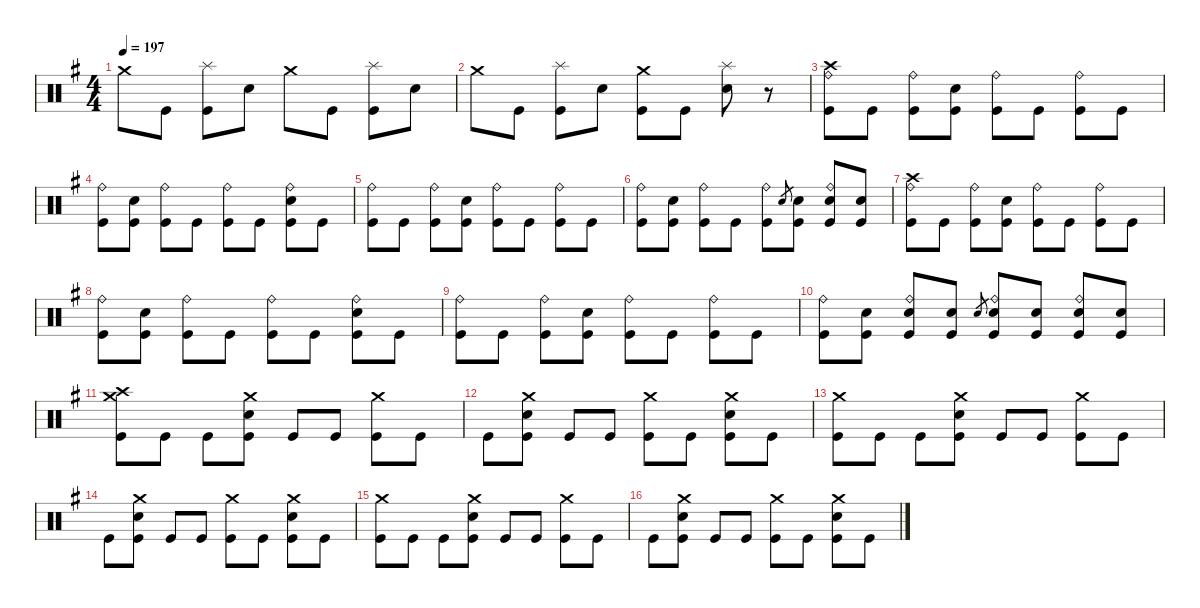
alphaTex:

\defaultSystemsLayout 4
\hideDynamics
\bracketExtendMode nobrackets
\singleTrackTrackNamePolicy hidden
\multiTrackTrackNamePolicy hidden
\firstSystemTrackNameMode fullname
\firstSystemTrackNameOrientation horizontal
\otherSystemsTrackNameOrientation horizontal
\track ("Drums" "drm.") {defaultSystemsLayout 4 instrument percussion}
\staff {score}
\articulation defaults
\ts (4 4)
\tempo 197
\clef neutral
\ks eminor "Crash medium (hit)"{acc forcenatural}.8{dy mf beam Down} "Kick (hit)"{acc forcenatural}.8{dy f beam Down}
("Splash (hit)"{acc forcenatural} "Kick (hit)"{acc forcenatural}).8{dy mf beam Down} "Snare (hit) 2"{acc forcenatural}.8{dy f beam Down} "Crash medium (hit)"{acc forcenatural}.8{dy mf beam Down} "Kick (hit)"{acc forcenatural}.8{dy f beam Down} ("Splash (hit)"{acc forcenatural} "Kick (hit)"{acc forcenatural}).8{dy mf beam Down} "Snare (hit) 2"{acc forcenatural}.8{dy f beam Down} |
"Crash medium (hit)"{acc forcenatural}.8{dy mf beam Down} "Kick (hit)"{acc forcenatural}.8{dy f beam Down} ("Splash (hit)"{acc forcenatural} "Kick (hit)"{acc forcenatural}).8{dy mf beam Down} "Snare (hit) 2"{acc forcenatural}.8{dy f beam Down} ("Crash medium (hit)"{acc forcenatural} "Kick (hit)"{acc forcenatural}).8{dy mf beam Down} "Kick (hit)"{acc forcenatural}.8{dy f beam Down} ("Splash (hit)"{acc forcenatural} "Snare (hit) 2"{acc forcenatural}).8{dy mf beam Down} r.8{beam Down} |
("Crash high (hit)"{acc forcenatural} "Ride (bell)"{acc forcenatural} "Kick (hit)"{acc forcenatural}).8{dy f beam Down} "Kick (hit)"{acc forcenatural}.8{beam Down} ("Ride (bell)"{acc forcenatural} "Kick (hit)"{acc forcenatural}).8{beam Down} ("Snare (hit) 2"{acc forcenatural} "Kick (hit)"{acc forcenatural}).8{beam Down} ("Ride (bell)"{acc forcenatural} "Kick (hit)"{acc forcenatural}).8{beam Down} "Kick (hit)"{acc forcenatural}.8{beam Down} ("Ride (bell)"{acc forcenatural} "Kick (hit)"{acc forcenatural}).8{beam Down} "Kick (hit)"{acc forcenatural}.8{beam Down} |
("Ride (bell)"{acc forcenatural} "Kick (hit)"{acc forcenatural}).8{beam Down} ("Snare (hit) 2"{acc forcenatural} "Kick (hit)"{acc forcenatural}).8{beam Down} ("Ride (bell)"{acc forcenatural} "Kick (hit)"{acc forcenatural}).8{beam Down} "Kick (hit)"{acc forcenatural}.8{beam Down} ("Ride (bell)"{acc forcenatural} "Kick (hit)"{acc forcenatural}).8{beam Down} "Kick (hit)"{acc forcenatural}.8{beam Down} ("Ride (bell)"{acc forcenatural} "Snare (hit) 2"{acc forcenatural} "Kick (hit)"{acc forcenatural}).8{beam Down} "Kick (hit)"{acc forcenatural}.8{beam Down} |
("Ride (bell)"{acc forcenatural} "Kick (hit)"{acc forcenatural}).8{beam Down} "Kick (hit)"{acc forcenatural}.8{beam Down} ("Ride (bell)"{acc forcenatural} "Kick (hit)"{acc forcenatural}).8{beam Down} ("Snare (hit) 2"{acc forcenatural} "Kick (hit)"{acc forcenatural}).8{beam Down} ("Ride (bell)"{acc forcenatural} "Kick (hit)"{acc forcenatural}).8{beam Down} "Kick (hit)"{acc forcenatural}.8{beam Down} ("Ride (bell)"{acc forcenatural} "Kick (hit)"{acc forcenatural}).8{beam Down} "Kick (hit)"{acc forcenatural}.8{beam Down} |
("Ride (bell)"{acc forcenatural} "Kick (hit)"{acc forcenatural}).8{beam Down} ("Snare (hit) 2"{acc forcenatural} "Kick (hit)"{acc forcenatural}).8{beam Down} ("Ride (bell)"{acc forcenatural} "Kick (hit)"{acc forcenatural}).8{beam Down} "Kick (hit)"{acc forcenatural}.8{beam Down} ("Ride (bell)"{acc forcenatural} "Kick (hit)"{acc forcenatural}).8{beam Down} "Electric Snare (hit)"{acc forcenatural}.8{gr dy mf beam Up} ("Snare (hit) 2"{acc forcenatural} "Kick (hit)"{acc forcenatural}).8{dy f beam Down} ("Ride (bell)"{acc forcenatural} "Snare (hit) 2"{acc forcenatural} "Kick (hit)"{acc forcenatural}).8{beam Up} ("Snare (hit) 2"{acc forcenatural} "Kick (hit)"{acc forcenatural}).8{beam Up} |
("Crash high (hit)"{acc forcenatural} "Ride (bell)"{acc forcenatural} "Kick (hit)"{acc forcenatural}).8{beam Down} "Kick (hit)"{acc forcenatural}.8{beam Down} ("Ride (bell)"{acc forcenatural} "Kick (hit)"{acc forcenatural}).8{beam Down} ("Snare (hit) 2"{acc forcenatural} "Kick (hit)"{acc forcenatural}).8{beam Down} ("Ride (bell)"{acc forcenatural} "Kick (hit)"{acc forcenatural}).8{beam Down} "Kick (hit)"{acc forcenatural}.8{beam Down} ("Ride (bell)"{acc forcenatural} "Kick (hit)"{acc forcenatural}).8{beam Down} "Kick (hit)"{acc forcenatural}.8{beam Down} |
("Ride (bell)"{acc forcenatural} "Kick (hit)"{acc forcenatural}).8{beam Down} ("Snare (hit) 2"{acc forcenatural} "Kick (hit)"{acc forcenatural}).8{beam Down} ("Ride (bell)"{acc forcenatural} "Kick (hit)"{acc forcenatural}).8{beam Down} "Kick (hit)"{acc forcenatural}.8{beam Down} ("Ride (bell)"{acc forcenatural} "Kick (hit)"{acc forcenatural}).8{beam Down} "Kick (hit)"{acc forcenatural}.8{beam Down} ("Ride (bell)"{acc forcenatural} "Snare (hit) 2"{acc forcenatural} "Kick (hit)"{acc forcenatural}).8{beam Down} "Kick (hit)"{acc forcenatural}.8{beam Down} |
("Ride (bell)"{acc forcenatural} "Kick (hit)"{acc forcenatural}).8{beam Down} "Kick (hit)"{acc forcenatural}.8{beam Down} ("Ride (bell)"{acc forcenatural} "Kick (hit)"{acc forcenatural}).8{beam Down} ("Snare (hit) 2"{acc forcenatural} "Kick (hit)"{acc forcenatural}).8{beam Down} ("Ride (bell)"{acc forcenatural} "Kick (hit)"{acc forcenatural}).8{beam Down} "Kick (hit)"{acc forcenatural}.8{beam Down} ("Ride (bell)"{acc forcenatural} "Kick (hit)"{acc forcenatural}).8{beam Down} "Kick (hit)"{acc forcenatural}.8{beam Down} |
("Ride (bell)"{acc forcenatural} "Kick (hit)"{acc forcenatural}).8{beam Down} ("Snare (hit) 2"{acc forcenatural} "Kick (hit)"{acc forcenatural}).8{beam Down} ("Ride (bell)"{acc forcenatural} "Snare (hit) 2"{acc forcenatural} "Kick (hit)"{acc forcenatural}).8{beam Up} ("Snare (hit) 2"{acc forcenatural} "Kick (hit)"{acc forcenatural}).8{beam Up} "Electric Snare (hit)"{acc forcenatural}.8{gr dy mf beam Up} ("Ride (bell)"{acc forcenatural} "Snare (hit) 2"{acc forcenatural} "Kick (hit)"{acc forcenatural}).8{dy f beam Up} ("Snare (hit) 2"{acc forcenatural} "Kick (hit)"{acc forcenatural}).8{beam Up} ("Ride (bell)"{acc forcenatural} "Snare (hit) 2"{acc forcenatural} "Kick (hit)"{acc forcenatural}).8{beam Up} ("Snare (hit) 2"{acc forcenatural} "Kick (hit)"{acc forcenatural}).8{beam Up} |
("Crash high (hit)"{acc forcenatural} "Crash medium (hit)"{acc forcenatural} "Kick (hit)"{acc forcenatural}).8{beam Down} "Kick (hit)"{acc forcenatural}.8{beam Down} "Kick (hit)"{acc forcenatural}.8{beam Down} ("Crash medium (hit)"{acc forcenatural} "Snare (hit) 2"{acc forcenatural} "Kick (hit)"{acc forcenatural}).8{beam Down} "Kick (hit)"{acc forcenatural}.8{beam Up} "Kick (hit)"{acc forcenatural}.8{beam Up} ("Crash medium (hit)"{acc forcenatural} "Kick (hit)"{acc forcenatural}).8{beam Down} "Kick (hit)"{acc forcenatural}.8{beam Down} |
"Kick (hit)"{acc forcenatural}.8{beam Down} ("Crash medium (hit)"{acc forcenatural} "Snare (hit) 2"{acc forcenatural} "Kick (hit)"{acc forcenatural}).8{beam Down} "Kick (hit)"{acc forcenatural}.8{beam Up} "Kick (hit)"{acc forcenatural}.8{beam Up} ("Crash medium (hit)"{acc forcenatural} "Kick (hit)"{acc forcenatural}).8{beam Down} "Kick (hit)"{acc forcenatural}.8{beam Down} ("Crash medium (hit)"{acc forcenatural} "Snare (hit) 2"{acc forcenatural} "Kick (hit)"{acc forcenatural}).8{beam Down} "Kick (hit)"{acc forcenatural}.8{beam Down} |
("Crash medium (hit)"{acc forcenatural} "Kick (hit)"{acc forcenatural}).8{beam Down} "Kick (hit)"{acc forcenatural}.8{beam Down} "Kick (hit)"{acc forcenatural}.8{beam Down} ("Crash medium (hit)"{acc forcenatural} "Snare (hit) 2"{acc forcenatural} "Kick (hit)"{acc forcenatural}).8{beam Down} "Kick (hit)"{acc forcenatural}.8{beam Up} "Kick (hit)"{acc forcenatural}.8{beam Up} ("Crash medium (hit)"{acc forcenatural} "Kick (hit)"{acc forcenatural}).8{beam Down} "Kick (hit)"{acc forcenatural}.8{beam Down} |
"Kick (hit)"{acc forcenatural}.8{beam Down} ("Crash medium (hit)"{acc forcenatural} "Snare (hit) 2"{acc forcenatural} "Kick (hit)"{acc forcenatural}).8{beam Down} "Kick (hit)"{acc forcenatural}.8{beam Up} "Kick (hit)"{acc forcenatural}.8{beam Up} ("Crash medium (hit)"{acc forcenatural} "Kick (hit)"{acc forcenatural}).8{beam Down} "Kick (hit)"{acc forcenatural}.8{beam Down} ("Crash medium (hit)"{acc forcenatural} "Snare (hit) 2"{acc forcenatural} "Kick (hit)"{acc forcenatural}).8{beam Down} "Kick (hit)"{acc forcenatural}.8{beam Down} |
("Crash medium (hit)"{acc forcenatural} "Kick (hit)"{acc forcenatural}).8{beam Down} "Kick (hit)"{acc forcenatural}.8{beam Down} "Kick (hit)"{acc forcenatural}.8{beam Down} ("Crash medium (hit)"{acc forcenatural} "Snare (hit) 2"{acc forcenatural} "Kick (hit)"{acc forcenatural}).8{beam Down} "Kick (hit)"{acc forcenatural}.8{beam Up} "Kick (hit)"{acc forcenatural}.8{beam Up} ("Crash medium (hit)"{acc forcenatural} "Kick (hit)"{acc forcenatural}).8{beam Down} "Kick (hit)"{acc forcenatural}.8{beam Down} |
"Kick (hit)"{acc forcenatural}.8{beam Down} ("Crash medium (hit)"{acc forcenatural} "Snare (hit) 2"{acc forcenatural} "Kick (hit)"{acc forcenatural}).8{beam Down} "Kick (hit)"{acc forcenatural}.8{beam Up} "Kick (hit)"{acc forcenatural}.8{beam Up} ("Crash medium (hit)"{acc forcenatural} "Kick (hit)"{acc forcenatural}).8{beam Down} "Kick (hit)"{acc forcenatural}.8{beam Down} ("Crash medium (hit)"{acc forcenatural} "Snare (hit) 2"{acc forcenatural} "Kick (hit)"{acc forcenatural}).8{beam Down} "Kick (hit)"{acc forcenatural}.8{beam Down}
